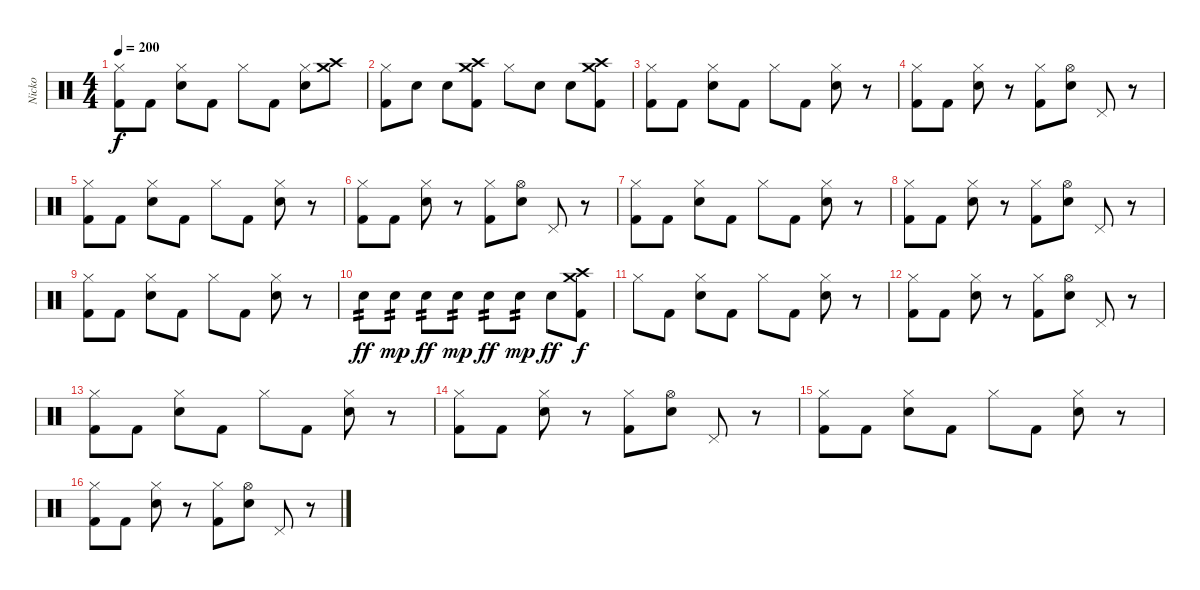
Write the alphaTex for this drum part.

\track ("Nicko" "Nicko") {instrument percussion}
\staff {score}
\articulation defaults
\ts (4 4)
\tempo 200
\clef neutral
\ks c
("Hi-Hat (closed)" "Kick (hit) 2").8{dy f} "Kick (hit) 2".8 ("Hi-Hat (closed)" "Electric Snare (hit)").8 "Kick (hit) 2".8 "Hi-Hat (closed)".8 "Kick (hit) 2".8 ("Hi-Hat (closed)" "Electric Snare (hit)").8 ("Crash medium (hit)" "Crash high (hit)").8 |
("Hi-Hat (closed)" "Kick (hit) 2").8 "Electric Snare (hit)".8 "Electric Snare (hit)".8 ("Crash high (hit)" "Crash medium (hit)" "Kick (hit) 2").8 "Hi-Hat (closed)".8 "Electric Snare (hit)".8 "Electric Snare (hit)".8 ("Crash high (hit)" "Crash medium (hit)" "Kick (hit) 2").8 |
("Hi-Hat (closed)" "Kick (hit) 2").8 "Kick (hit) 2".8 ("Hi-Hat (closed)" "Electric Snare (hit)").8 "Kick (hit) 2".8 "Hi-Hat (closed)".8 "Kick (hit) 2".8 ("Hi-Hat (closed)" "Electric Snare (hit)").8 r.8 |
("Hi-Hat (closed)" "Kick (hit) 2").8 "Kick (hit) 2".8 ("Hi-Hat (closed)" "Electric Snare (hit)").8 r.8 ("Hi-Hat (closed)" "Kick (hit) 2").8 ("Hi-Hat (open)" "Electric Snare (hit)").8 "Pedal Hi-Hat (hit)".8 r.8 |
("Hi-Hat (closed)" "Kick (hit) 2").8 "Kick (hit) 2".8 ("Hi-Hat (closed)" "Electric Snare (hit)").8 "Kick (hit) 2".8 "Hi-Hat (closed)".8 "Kick (hit) 2".8 ("Hi-Hat (closed)" "Electric Snare (hit)").8 r.8 |
("Hi-Hat (closed)" "Kick (hit) 2").8 "Kick (hit) 2".8 ("Hi-Hat (closed)" "Electric Snare (hit)").8 r.8 ("Hi-Hat (closed)" "Kick (hit) 2").8 ("Hi-Hat (open)" "Electric Snare (hit)").8 "Pedal Hi-Hat (hit)".8 r.8 |
("Hi-Hat (closed)" "Kick (hit) 2").8 "Kick (hit) 2".8 ("Hi-Hat (closed)" "Electric Snare (hit)").8 "Kick (hit) 2".8 "Hi-Hat (closed)".8 "Kick (hit) 2".8 ("Hi-Hat (closed)" "Electric Snare (hit)").8 r.8 |
("Hi-Hat (closed)" "Kick (hit) 2").8 "Kick (hit) 2".8 ("Hi-Hat (closed)" "Electric Snare (hit)").8 r.8 ("Hi-Hat (closed)" "Kick (hit) 2").8 ("Hi-Hat (open)" "Electric Snare (hit)").8 "Pedal Hi-Hat (hit)".8 r.8 |
("Hi-Hat (closed)" "Kick (hit) 2").8 "Kick (hit) 2".8 ("Hi-Hat (closed)" "Electric Snare (hit)").8 "Kick (hit) 2".8 "Hi-Hat (closed)".8 "Kick (hit) 2".8 ("Hi-Hat (closed)" "Electric Snare (hit)").8 r.8 |
"Electric Snare (hit)".8{tp 2 dy ff} "Electric Snare (hit)".8{tp 2 dy mp} "Electric Snare (hit)".8{tp 2 dy ff} "Electric Snare (hit)".8{tp 2 dy mp} "Electric Snare (hit)".8{tp 2 dy ff} "Electric Snare (hit)".8{tp 2 dy mp} "Electric Snare (hit)".8{dy ff} ("Crash high (hit)" "Crash medium (hit)" "Kick (hit) 2").8{dy f} |
"Hi-Hat (closed)".8 "Kick (hit) 2".8 ("Hi-Hat (closed)" "Electric Snare (hit)").8 "Kick (hit) 2".8 "Hi-Hat (closed)".8 "Kick (hit) 2".8 ("Hi-Hat (closed)" "Electric Snare (hit)").8 r.8 |
("Hi-Hat (closed)" "Kick (hit) 2").8 "Kick (hit) 2".8 ("Hi-Hat (closed)" "Electric Snare (hit)").8 r.8 ("Hi-Hat (closed)" "Kick (hit) 2").8 ("Hi-Hat (open)" "Electric Snare (hit)").8 "Pedal Hi-Hat (hit)".8 r.8 |
("Hi-Hat (closed)" "Kick (hit) 2").8 "Kick (hit) 2".8 ("Hi-Hat (closed)" "Electric Snare (hit)").8 "Kick (hit) 2".8 "Hi-Hat (closed)".8 "Kick (hit) 2".8 ("Hi-Hat (closed)" "Electric Snare (hit)").8 r.8 |
("Hi-Hat (closed)" "Kick (hit) 2").8 "Kick (hit) 2".8 ("Hi-Hat (closed)" "Electric Snare (hit)").8 r.8 ("Hi-Hat (closed)" "Kick (hit) 2").8 ("Hi-Hat (open)" "Electric Snare (hit)").8 "Pedal Hi-Hat (hit)".8 r.8 |
("Hi-Hat (closed)" "Kick (hit) 2").8 "Kick (hit) 2".8 ("Hi-Hat (closed)" "Electric Snare (hit)").8 "Kick (hit) 2".8 "Hi-Hat (closed)".8 "Kick (hit) 2".8 ("Hi-Hat (closed)" "Electric Snare (hit)").8 r.8 |
("Hi-Hat (closed)" "Kick (hit) 2").8 "Kick (hit) 2".8 ("Hi-Hat (closed)" "Electric Snare (hit)").8 r.8 ("Hi-Hat (closed)" "Kick (hit) 2").8 ("Hi-Hat (open)" "Electric Snare (hit)").8 "Pedal Hi-Hat (hit)".8 r.8
